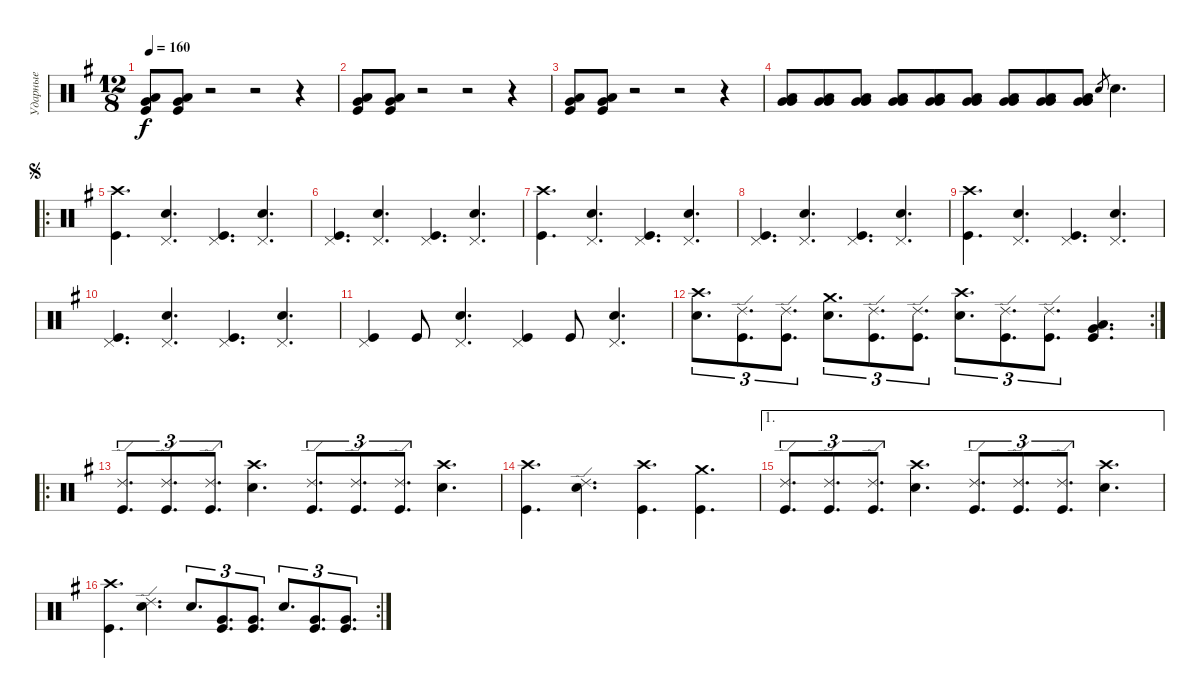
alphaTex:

\track ("Ударные" "Ударные") {instrument percussion}
\staff {score}
\articulation defaults
\ts (12 8)
\tempo 160
\clef neutral
\ks g
("Low Floor Tom (hit)" "Kick (hit)" "Very Low Tom (hit)").8{dy f} ("Kick (hit)" "Low Floor Tom (hit)" "Very Low Tom (hit)").8 r.2 r.2 r.4 |
("Low Floor Tom (hit)" "Kick (hit)" "Very Low Tom (hit)").8 ("Kick (hit)" "Low Floor Tom (hit)" "Very Low Tom (hit)").8 r.2 r.2 r.4 |
("Low Floor Tom (hit)" "Kick (hit)" "Very Low Tom (hit)").8 ("Kick (hit)" "Low Floor Tom (hit)" "Very Low Tom (hit)").8 r.2{volume 5} r.2 r.4 |
("Low Floor Tom (hit)" "Very Low Tom (hit)" "Very Low Tom (hit)").8{volume 13} ("Low Floor Tom (hit)" "Very Low Tom (hit)" "Very Low Tom (hit)").8 ("Very Low Tom (hit)" "Low Floor Tom (hit)" "Very Low Tom (hit)").8 ("Low Floor Tom (hit)" "Very Low Tom (hit)" "Very Low Tom (hit)").8 ("Low Floor Tom (hit)" "Very Low Tom (hit)" "Very Low Tom (hit)").8 ("Very Low Tom (hit)" "Low Floor Tom (hit)" "Very Low Tom (hit)").8 ("Low Floor Tom (hit)" "Very Low Tom (hit)" "Very Low Tom (hit)").8 ("Very Low Tom (hit)" "Low Floor Tom (hit)" "Very Low Tom (hit)").8 ("Low Floor Tom (hit)" "Very Low Tom (hit)" "Very Low Tom (hit)").8 "Snare (hit) 2".8{gr} "Snare (hit) 2".4{d} |
\ro
\jump segno
("Kick (hit)" "Crash high (hit)").4{d} ("Snare (hit) 2" "Pedal Hi-Hat (hit)").4{d} ("Pedal Hi-Hat (hit)" "Kick (hit)").4{d} ("Snare (hit) 2" "Pedal Hi-Hat (hit)").4{d} |
("Kick (hit)" "Pedal Hi-Hat (hit)").4{d} ("Snare (hit) 2" "Pedal Hi-Hat (hit)").4{d} ("Kick (hit)" "Pedal Hi-Hat (hit)").4{d} ("Snare (hit) 2" "Pedal Hi-Hat (hit)").4{d} |
("Crash high (hit)" "Kick (hit)").4{d} ("Snare (hit) 2" "Pedal Hi-Hat (hit)").4{d} ("Kick (hit)" "Pedal Hi-Hat (hit)").4{d} ("Snare (hit) 2" "Pedal Hi-Hat (hit)").4{d} |
("Kick (hit)" "Pedal Hi-Hat (hit)").4{d} ("Snare (hit) 2" "Pedal Hi-Hat (hit)").4{d} ("Kick (hit)" "Pedal Hi-Hat (hit)").4{d} ("Snare (hit) 2" "Pedal Hi-Hat (hit)").4{d} |
("Crash high (hit)" "Kick (hit)").4{d} ("Snare (hit) 2" "Pedal Hi-Hat (hit)").4{d} ("Kick (hit)" "Pedal Hi-Hat (hit)").4{d} ("Snare (hit) 2" "Pedal Hi-Hat (hit)").4{d} |
("Kick (hit)" "Pedal Hi-Hat (hit)").4{d} ("Snare (hit) 2" "Pedal Hi-Hat (hit)").4{d} ("Kick (hit)" "Pedal Hi-Hat (hit)").4{d} ("Snare (hit) 2" "Pedal Hi-Hat (hit)").4{d} |
("Kick (hit)" "Pedal Hi-Hat (hit)").4 "Kick (hit)".8 ("Snare (hit) 2" "Pedal Hi-Hat (hit)").4{d} ("Kick (hit)" "Pedal Hi-Hat (hit)").4 "Kick (hit)".8 ("Snare (hit) 2" "Pedal Hi-Hat (hit)").4{d} |
\rc 2
("Snare (hit) 2" "Crash high (hit)").8{d tu (3 2)} ("Kick (hit)" "Ride (edge) 2").8{d tu (3 2)} ("Kick (hit)" "Ride (edge) 2").8{d tu (3 2)} ("Snare (hit) 2" "Crash medium (hit)").8{d tu (3 2)} ("Kick (hit)" "Ride (edge) 2").8{d tu (3 2)} ("Kick (hit)" "Ride (edge) 2").8{d tu (3 2)} ("Snare (hit) 2" "Crash high (hit)").8{d tu (3 2)} ("Kick (hit)" "Ride (edge) 2").8{d tu (3 2)} ("Kick (hit)" "Ride (edge) 2").8{d tu (3 2)} ("Low Floor Tom (hit)" "Very Low Tom (hit)" "Kick (hit)").4{d} |
\ro
("Kick (hit)" "Ride (edge) 2").8{d tu (3 2)} ("Kick (hit)" "Ride (edge) 2").8{d tu (3 2)} ("Kick (hit)" "Ride (edge) 2").8{d tu (3 2)} ("Snare (hit) 2" "Crash high (hit)").4{d} ("Kick (hit)" "Ride (edge) 2").8{d tu (3 2)} ("Kick (hit)" "Ride (edge) 2").8{d tu (3 2)} ("Kick (hit)" "Ride (edge) 2").8{d tu (3 2)} ("Snare (hit) 2" "Crash high (hit)").4{d} |
("Kick (hit)" "Crash high (hit)").4{d} ("Ride (edge) 2" "Snare (hit) 2").4{d} ("Kick (hit)" "Crash high (hit)").4{d} ("Kick (hit)" "Crash medium (hit)").4{d} |
\ae 1
("Kick (hit)" "Ride (edge) 2").8{d tu (3 2)} ("Kick (hit)" "Ride (edge) 2").8{d tu (3 2)} ("Kick (hit)" "Ride (edge) 2").8{d tu (3 2)} ("Snare (hit) 2" "Crash high (hit)").4{d} ("Kick (hit)" "Ride (edge) 2").8{d tu (3 2)} ("Kick (hit)" "Ride (edge) 2").8{d tu (3 2)} ("Kick (hit)" "Ride (edge) 2").8{d tu (3 2)} ("Snare (hit) 2" "Crash high (hit)").4{d} |
\rc 2
("Kick (hit)" "Crash high (hit)").4{d} ("Snare (hit) 2" "Ride (edge) 2").4{d} "Snare (hit) 2".8{d tu (3 2)} ("Kick (hit)" "Very Low Tom (hit)").8{d tu (3 2)} ("Kick (hit)" "Very Low Tom (hit)").8{d tu (3 2)} "Snare (hit) 2".8{d tu (3 2)} ("Kick (hit)" "Very Low Tom (hit)").8{d tu (3 2)} ("Kick (hit)" "Very Low Tom (hit)").8{d tu (3 2)}
